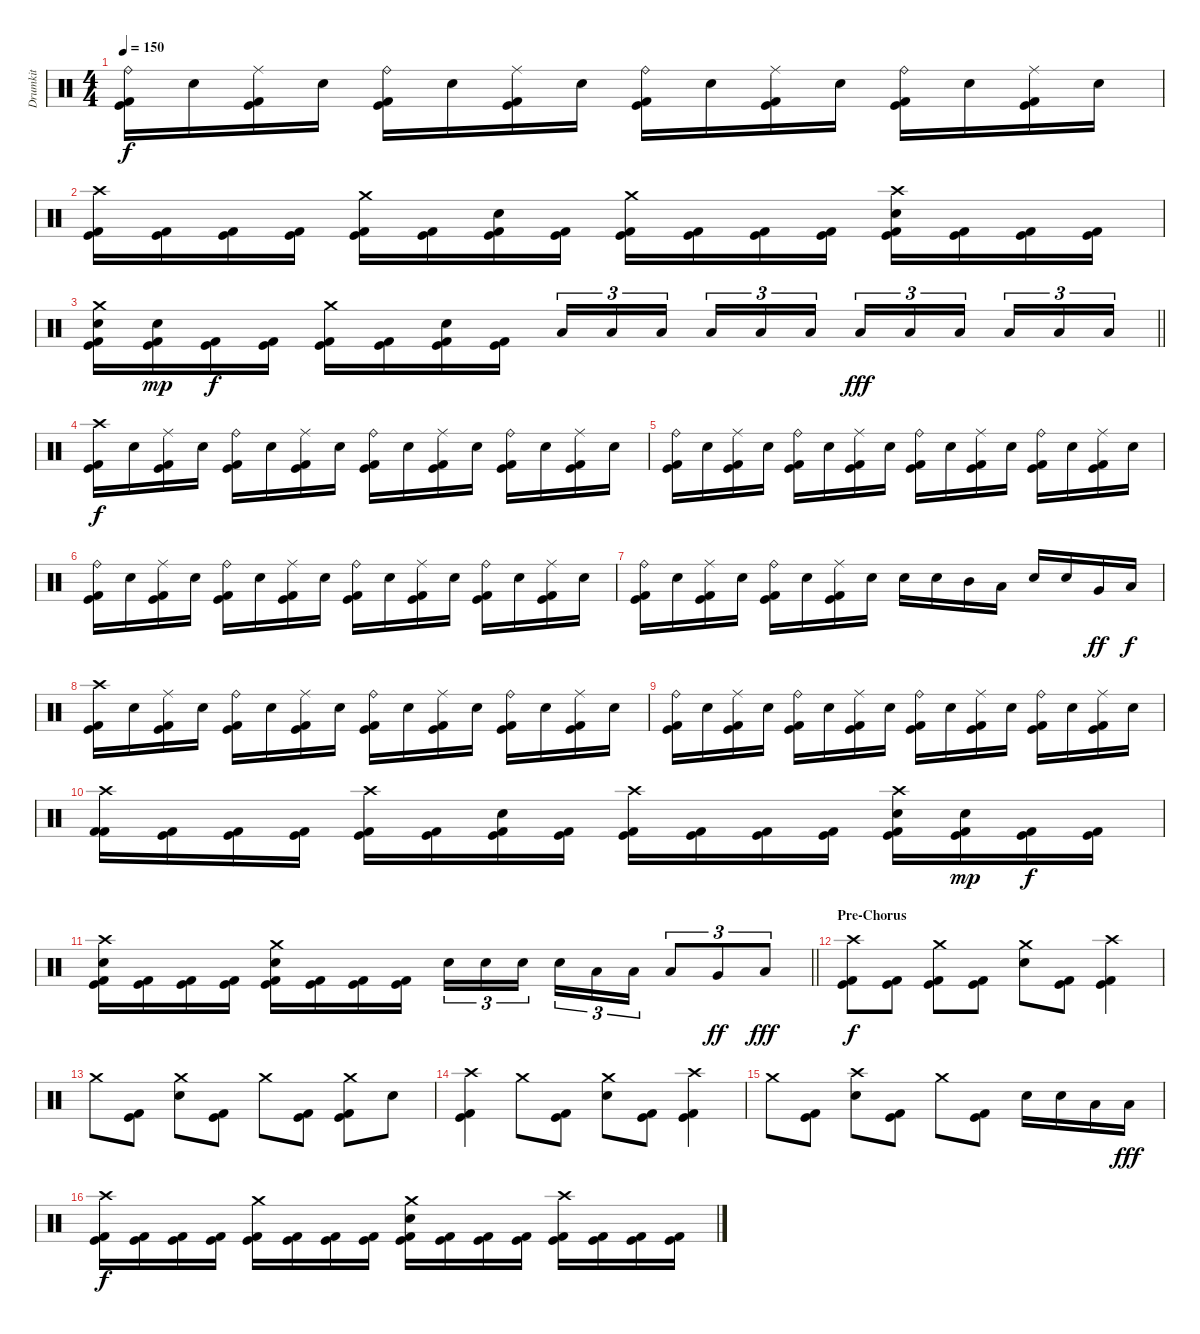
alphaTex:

\track ("Drumkit" "Drumkit") {instrument percussion}
\staff {score}
\articulation defaults
\ts (4 4)
\tempo 150
\clef neutral
\ks c
("Ride (bell)" "Kick (hit)" "Kick (hit) 2").16{dy f} "Electric Snare (hit)".16 ("Ride (middle)" "Kick (hit)" "Kick (hit) 2").16 "Electric Snare (hit)".16 ("Ride (bell)" "Kick (hit)" "Kick (hit) 2").16 "Electric Snare (hit)".16 ("Ride (middle)" "Kick (hit)" "Kick (hit) 2").16 "Electric Snare (hit)".16 ("Ride (bell)" "Kick (hit)" "Kick (hit) 2").16 "Electric Snare (hit)".16 ("Ride (middle)" "Kick (hit)" "Kick (hit) 2").16 "Electric Snare (hit)".16 ("Ride (bell)" "Kick (hit)" "Kick (hit) 2").16 "Electric Snare (hit)".16 ("Ride (middle)" "Kick (hit)" "Kick (hit) 2").16 "Electric Snare (hit)".16 |
("Crash high (hit)" "Kick (hit)" "Kick (hit) 2").16 ("Kick (hit)" "Kick (hit) 2").16 ("Kick (hit)" "Kick (hit) 2").16 ("Kick (hit)" "Kick (hit) 2").16 ("Crash medium (hit)" "Kick (hit)" "Kick (hit) 2").16 ("Kick (hit)" "Kick (hit) 2").16 ("Electric Snare (hit)" "Kick (hit)" "Kick (hit) 2").16 ("Kick (hit)" "Kick (hit) 2").16 ("Crash medium (hit)" "Kick (hit)" "Kick (hit) 2").16 ("Kick (hit)" "Kick (hit) 2").16 ("Kick (hit)" "Kick (hit) 2").16 ("Kick (hit)" "Kick (hit) 2").16 ("Crash high (hit)" "Electric Snare (hit)" "Kick (hit)" "Kick (hit) 2").16 ("Kick (hit)" "Kick (hit) 2").16 ("Kick (hit)" "Kick (hit) 2").16 ("Kick (hit)" "Kick (hit) 2").16 |
\barLineRight lightlight
("Crash medium (hit)" "Electric Snare (hit)" "Kick (hit)" "Kick (hit) 2").16 ("Electric Snare (hit)" "Kick (hit)" "Kick (hit) 2").16{dy mp} ("Kick (hit)" "Kick (hit) 2").16{dy f} ("Kick (hit)" "Kick (hit) 2").16 ("Crash medium (hit)" "Kick (hit)" "Kick (hit) 2").16 ("Kick (hit)" "Kick (hit) 2").16 ("Electric Snare (hit)" "Kick (hit)" "Kick (hit) 2").16 ("Kick (hit)" "Kick (hit) 2").16 "Low Tom (hit)".16{tu (3 2)} "Low Tom (hit)".16{tu (3 2)} "Low Tom (hit)".16{tu (3 2) beam splitsecondary} "Low Tom (hit)".16{tu (3 2)} "Low Tom (hit)".16{tu (3 2)} "Low Tom (hit)".16{tu (3 2)} "Low Floor Tom (hit)".16{tu (3 2) dy fff} "Low Floor Tom (hit)".16{tu (3 2)} "Low Floor Tom (hit)".16{tu (3 2) beam splitsecondary} "Low Floor Tom (hit)".16{tu (3 2)} "Low Floor Tom (hit)".16{tu (3 2)} "Low Floor Tom (hit)".16{tu (3 2)} |
("Crash high (hit)" "Kick (hit)" "Kick (hit) 2").16{dy f} "Electric Snare (hit)".16 ("Ride (middle)" "Kick (hit)" "Kick (hit) 2").16 "Electric Snare (hit)".16 ("Ride (bell)" "Kick (hit)" "Kick (hit) 2").16 "Electric Snare (hit)".16 ("Ride (middle)" "Kick (hit)" "Kick (hit) 2").16 "Electric Snare (hit)".16 ("Ride (bell)" "Kick (hit)" "Kick (hit) 2").16 "Electric Snare (hit)".16 ("Ride (middle)" "Kick (hit)" "Kick (hit) 2").16 "Electric Snare (hit)".16 ("Ride (bell)" "Kick (hit)" "Kick (hit) 2").16 "Electric Snare (hit)".16 ("Ride (middle)" "Kick (hit)" "Kick (hit) 2").16 "Electric Snare (hit)".16 |
("Ride (bell)" "Kick (hit)" "Kick (hit) 2").16 "Electric Snare (hit)".16 ("Ride (middle)" "Kick (hit)" "Kick (hit) 2").16 "Electric Snare (hit)".16 ("Ride (bell)" "Kick (hit)" "Kick (hit) 2").16 "Electric Snare (hit)".16 ("Ride (middle)" "Kick (hit)" "Kick (hit) 2").16 "Electric Snare (hit)".16 ("Ride (bell)" "Kick (hit)" "Kick (hit) 2").16 "Electric Snare (hit)".16 ("Ride (middle)" "Kick (hit)" "Kick (hit) 2").16 "Electric Snare (hit)".16 ("Ride (bell)" "Kick (hit)" "Kick (hit) 2").16 "Electric Snare (hit)".16 ("Ride (middle)" "Kick (hit)" "Kick (hit) 2").16 "Electric Snare (hit)".16 |
("Ride (bell)" "Kick (hit)" "Kick (hit) 2").16 "Electric Snare (hit)".16 ("Ride (middle)" "Kick (hit)" "Kick (hit) 2").16 "Electric Snare (hit)".16 ("Ride (bell)" "Kick (hit)" "Kick (hit) 2").16 "Electric Snare (hit)".16 ("Ride (middle)" "Kick (hit)" "Kick (hit) 2").16 "Electric Snare (hit)".16 ("Ride (bell)" "Kick (hit)" "Kick (hit) 2").16 "Electric Snare (hit)".16 ("Ride (middle)" "Kick (hit)" "Kick (hit) 2").16 "Electric Snare (hit)".16 ("Ride (bell)" "Kick (hit)" "Kick (hit) 2").16 "Electric Snare (hit)".16 ("Ride (middle)" "Kick (hit)" "Kick (hit) 2").16 "Electric Snare (hit)".16 |
("Ride (bell)" "Kick (hit)" "Kick (hit) 2").16 "Electric Snare (hit)".16 ("Ride (middle)" "Kick (hit)" "Kick (hit) 2").16 "Electric Snare (hit)".16 ("Ride (bell)" "Kick (hit)" "Kick (hit) 2").16 "Electric Snare (hit)".16 ("Ride (middle)" "Kick (hit)" "Kick (hit) 2").16 "Electric Snare (hit)".16 "Electric Snare (hit)".16 "Electric Snare (hit)".16 "Mid Tom (hit)".16 "Low Tom (hit)".16 "Electric Snare (hit)".16 "Electric Snare (hit)".16 "Very Low Tom (hit)".16{dy ff} "Low Floor Tom (hit)".16{dy f} |
("Crash high (hit)" "Kick (hit)" "Kick (hit) 2").16 "Electric Snare (hit)".16 ("Ride (middle)" "Kick (hit)" "Kick (hit) 2").16 "Electric Snare (hit)".16 ("Ride (bell)" "Kick (hit)" "Kick (hit) 2").16 "Electric Snare (hit)".16 ("Ride (middle)" "Kick (hit)" "Kick (hit) 2").16 "Electric Snare (hit)".16 ("Ride (bell)" "Kick (hit)" "Kick (hit) 2").16 "Electric Snare (hit)".16 ("Ride (middle)" "Kick (hit)" "Kick (hit) 2").16 "Electric Snare (hit)".16 ("Ride (bell)" "Kick (hit)" "Kick (hit) 2").16 "Electric Snare (hit)".16 ("Ride (middle)" "Kick (hit)" "Kick (hit) 2").16 "Electric Snare (hit)".16 |
("Ride (bell)" "Kick (hit)" "Kick (hit) 2").16 "Electric Snare (hit)".16 ("Ride (middle)" "Kick (hit)" "Kick (hit) 2").16 "Electric Snare (hit)".16 ("Ride (bell)" "Kick (hit)" "Kick (hit) 2").16 "Electric Snare (hit)".16 ("Ride (middle)" "Kick (hit)" "Kick (hit) 2").16 "Electric Snare (hit)".16 ("Ride (bell)" "Kick (hit)" "Kick (hit) 2").16 "Electric Snare (hit)".16 ("Ride (middle)" "Kick (hit)" "Kick (hit) 2").16 "Electric Snare (hit)".16 ("Ride (bell)" "Kick (hit)" "Kick (hit) 2").16 "Electric Snare (hit)".16 ("Ride (middle)" "Kick (hit)" "Kick (hit) 2").16 "Electric Snare (hit)".16 |
("Crash high (hit)" "Kick (hit) 2" "Kick (hit) 2").16 ("Kick (hit)" "Kick (hit) 2").16 ("Kick (hit)" "Kick (hit) 2").16 ("Kick (hit)" "Kick (hit) 2").16 ("Crash high (hit)" "Kick (hit)" "Kick (hit) 2").16 ("Kick (hit)" "Kick (hit) 2").16 ("Electric Snare (hit)" "Kick (hit)" "Kick (hit) 2").16 ("Kick (hit)" "Kick (hit) 2").16 ("Crash high (hit)" "Kick (hit)" "Kick (hit) 2").16 ("Kick (hit)" "Kick (hit) 2").16 ("Kick (hit)" "Kick (hit) 2").16 ("Kick (hit)" "Kick (hit) 2").16 ("Crash high (hit)" "Electric Snare (hit)" "Kick (hit)" "Kick (hit) 2").16 ("Electric Snare (hit)" "Kick (hit)" "Kick (hit) 2").16{dy mp} ("Kick (hit)" "Kick (hit) 2").16{dy f} ("Kick (hit)" "Kick (hit) 2").16 |
\barLineRight lightlight
("Crash high (hit)" "Electric Snare (hit)" "Kick (hit)" "Kick (hit) 2").16 ("Kick (hit)" "Kick (hit) 2").16 ("Kick (hit)" "Kick (hit) 2").16 ("Kick (hit)" "Kick (hit) 2").16 ("Crash medium (hit)" "Electric Snare (hit)" "Kick (hit)" "Kick (hit) 2").16 ("Kick (hit)" "Kick (hit) 2").16 ("Kick (hit)" "Kick (hit) 2").16 ("Kick (hit)" "Kick (hit) 2").16 "Electric Snare (hit)".16{tu (3 2)} "Electric Snare (hit)".16{tu (3 2)} "Electric Snare (hit)".16{tu (3 2) beam splitsecondary} "Electric Snare (hit)".16{tu (3 2)} "Low Tom (hit)".16{tu (3 2)} "Low Tom (hit)".16{tu (3 2)} "Low Tom (hit)".8{tu (3 2)} "Very Low Tom (hit)".8{tu (3 2) dy ff} "Low Floor Tom (hit)".8{tu (3 2) dy fff} |
\section ("" "Pre-Chorus")
("Crash high (hit)" "Kick (hit)" "Kick (hit) 2").8{dy f} ("Kick (hit)" "Kick (hit) 2").8 ("Crash medium (hit)" "Kick (hit)" "Kick (hit) 2").8 ("Kick (hit)" "Kick (hit) 2").8 ("Crash medium (hit)" "Electric Snare (hit)").8 ("Kick (hit)" "Kick (hit) 2").8 ("Crash high (hit)" "Kick (hit)" "Kick (hit) 2").4 |
"Crash medium (hit)".8 ("Kick (hit)" "Kick (hit) 2").8 ("Crash medium (hit)" "Electric Snare (hit)").8 ("Kick (hit)" "Kick (hit) 2").8 "Crash medium (hit)".8 ("Kick (hit)" "Kick (hit) 2").8 ("Crash medium (hit)" "Kick (hit)" "Kick (hit) 2").8 "Electric Snare (hit)".8 |
("Crash high (hit)" "Kick (hit)" "Kick (hit) 2").4 "Crash medium (hit)".8 ("Kick (hit)" "Kick (hit) 2").8 ("Crash medium (hit)" "Electric Snare (hit)").8 ("Kick (hit)" "Kick (hit) 2").8 ("Crash high (hit)" "Kick (hit)" "Kick (hit) 2").4 |
"Crash medium (hit)".8 ("Kick (hit)" "Kick (hit) 2").8 ("Crash high (hit)" "Electric Snare (hit)").8 ("Kick (hit)" "Kick (hit) 2").8 "Crash medium (hit)".8 ("Kick (hit)" "Kick (hit) 2").8 "Electric Snare (hit)".16 "Electric Snare (hit)".16 "Low Tom (hit)".16 "Low Floor Tom (hit)".16{dy fff} |
("Crash high (hit)" "Kick (hit)" "Kick (hit) 2").16{dy f} ("Kick (hit)" "Kick (hit) 2").16 ("Kick (hit)" "Kick (hit) 2").16 ("Kick (hit)" "Kick (hit) 2").16 ("Crash medium (hit)" "Kick (hit)" "Kick (hit) 2").16 ("Kick (hit)" "Kick (hit) 2").16 ("Kick (hit)" "Kick (hit) 2").16 ("Kick (hit)" "Kick (hit) 2").16 ("Crash medium (hit)" "Electric Snare (hit)" "Kick (hit)" "Kick (hit) 2").16 ("Kick (hit)" "Kick (hit) 2").16 ("Kick (hit)" "Kick (hit) 2").16 ("Kick (hit)" "Kick (hit) 2").16 ("Crash high (hit)" "Kick (hit)" "Kick (hit) 2").16 ("Kick (hit)" "Kick (hit) 2").16 ("Kick (hit)" "Kick (hit) 2").16 ("Kick (hit)" "Kick (hit) 2").16
